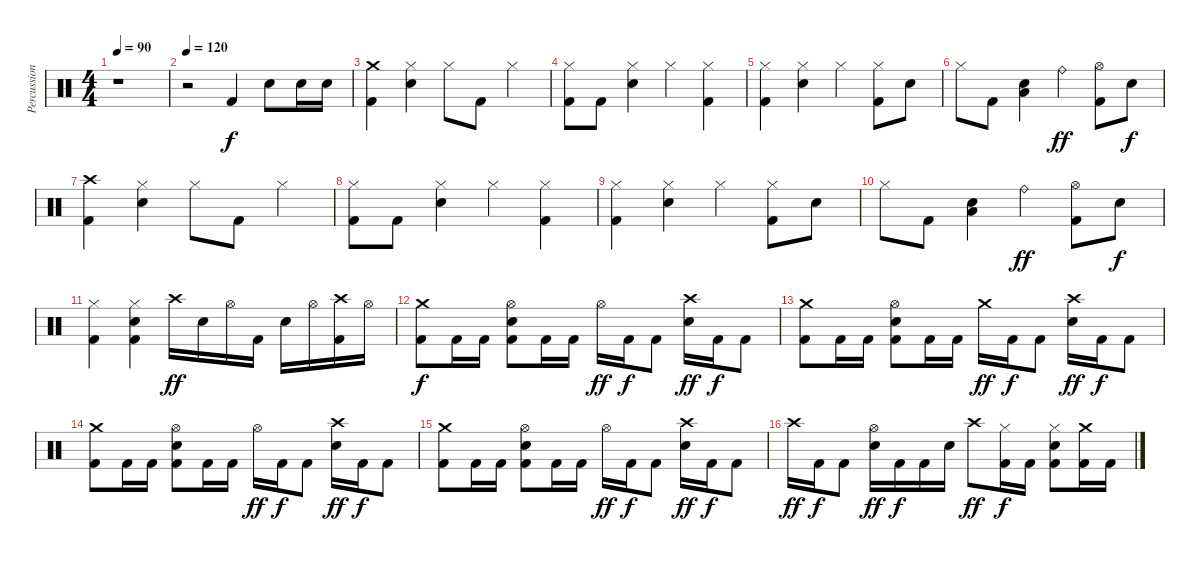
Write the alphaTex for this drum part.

\track ("Percussioni" "Percussion") {instrument percussion}
\staff {score}
\articulation defaults
\ts (4 4)
\tempo 90
\clef neutral
\ks c
r.1{dy f} |
\tempo 120
r.2 "Kick (hit) 2".4 "Electric Snare (hit)".8 "Electric Snare (hit)".16 "Electric Snare (hit)".16 |
("Crash medium (hit)" "Kick (hit) 2").4 ("Hi-Hat (closed)" "Electric Snare (hit)").4 "Hi-Hat (closed)".8 "Kick (hit) 2".8 "Hi-Hat (closed)".4 |
("Hi-Hat (closed)" "Kick (hit) 2").8 "Kick (hit) 2".8 ("Hi-Hat (closed)" "Electric Snare (hit)").4 "Hi-Hat (closed)".4 ("Hi-Hat (closed)" "Kick (hit) 2").4 |
("Hi-Hat (closed)" "Kick (hit) 2").4 ("Hi-Hat (closed)" "Electric Snare (hit)").4 "Hi-Hat (closed)".4 ("Hi-Hat (closed)" "Kick (hit) 2").8 "Electric Snare (hit)".8 |
"Hi-Hat (closed)".8 "Kick (hit) 2".8 ("Electric Snare (hit)" "Low Tom (hit)").4 "Ride (bell)".4{dy ff} ("Hi-Hat (open)" "Kick (hit) 2").8 "Electric Snare (hit)".8{dy f} |
("Crash high (hit)" "Kick (hit) 2").4 ("Hi-Hat (closed)" "Electric Snare (hit)").4 "Hi-Hat (closed)".8 "Kick (hit) 2".8 "Hi-Hat (closed)".4 |
("Hi-Hat (closed)" "Kick (hit) 2").8 "Kick (hit) 2".8 ("Hi-Hat (closed)" "Electric Snare (hit)").4 "Hi-Hat (closed)".4 ("Hi-Hat (closed)" "Kick (hit) 2").4 |
("Hi-Hat (closed)" "Kick (hit) 2").4 ("Hi-Hat (closed)" "Electric Snare (hit)").4 "Hi-Hat (closed)".4 ("Hi-Hat (closed)" "Kick (hit) 2").8 "Electric Snare (hit)".8 |
"Hi-Hat (closed)".8 "Kick (hit) 2".8 ("Electric Snare (hit)" "Low Tom (hit)").4 "Ride (bell)".4{dy ff} ("Hi-Hat (open)" "Kick (hit) 2").8 "Electric Snare (hit)".8{dy f} |
("Hi-Hat (closed)" "Kick (hit) 2").4 ("Hi-Hat (closed)" "Electric Snare (hit)" "Kick (hit) 2").4 "Crash high (hit)".16{dy ff} "Electric Snare (hit)".16 "Hi-Hat (open)".16 "Kick (hit) 2".16 "Electric Snare (hit)".16 "Hi-Hat (open)".16 ("Crash high (hit)" "Kick (hit) 2").16 "Hi-Hat (open)".16 |
("Crash medium (hit)" "Kick (hit) 2").8{dy f} "Kick (hit) 2".16 "Kick (hit) 2".16 ("Hi-Hat (open)" "Electric Snare (hit)" "Kick (hit) 2").8 "Kick (hit) 2".16 "Kick (hit) 2".16 "Hi-Hat (open)".16{dy ff} "Kick (hit) 2".16{dy f} "Kick (hit) 2".8 ("Crash high (hit)" "Electric Snare (hit)").16{dy ff} "Kick (hit) 2".16{dy f} "Kick (hit) 2".8 |
("Crash medium (hit)" "Kick (hit) 2").8 "Kick (hit) 2".16 "Kick (hit) 2".16 ("Hi-Hat (open)" "Electric Snare (hit)" "Kick (hit) 2").8 "Kick (hit) 2".16 "Kick (hit) 2".16 "Crash medium (hit)".16{dy ff} "Kick (hit) 2".16{dy f} "Kick (hit) 2".8 ("Crash high (hit)" "Electric Snare (hit)").16{dy ff} "Kick (hit) 2".16{dy f} "Kick (hit) 2".8 |
("Crash medium (hit)" "Kick (hit) 2").8 "Kick (hit) 2".16 "Kick (hit) 2".16 ("Hi-Hat (open)" "Electric Snare (hit)" "Kick (hit) 2").8 "Kick (hit) 2".16 "Kick (hit) 2".16 "Hi-Hat (open)".16{dy ff} "Kick (hit) 2".16{dy f} "Kick (hit) 2".8 ("Crash high (hit)" "Electric Snare (hit)").16{dy ff} "Kick (hit) 2".16{dy f} "Kick (hit) 2".8 |
("Crash medium (hit)" "Kick (hit) 2").8 "Kick (hit) 2".16 "Kick (hit) 2".16 ("Hi-Hat (open)" "Electric Snare (hit)" "Kick (hit) 2").8 "Kick (hit) 2".16 "Kick (hit) 2".16 "Hi-Hat (open)".16{dy ff} "Kick (hit) 2".16{dy f} "Kick (hit) 2".8 ("Crash high (hit)" "Electric Snare (hit)").16{dy ff} "Kick (hit) 2".16{dy f} "Kick (hit) 2".8 |
"Crash high (hit)".16{dy ff} "Kick (hit) 2".16{dy f} "Kick (hit) 2".8 ("Hi-Hat (open)" "Electric Snare (hit)").16{dy ff} "Kick (hit) 2".16{dy f} "Kick (hit) 2".16 "Electric Snare (hit)".16 "Crash high (hit)".8{dy ff} ("Hi-Hat (closed)" "Kick (hit) 2").16{dy f} "Kick (hit) 2".16 ("Hi-Hat (closed)" "Electric Snare (hit)" "Kick (hit) 2").8 ("Crash medium (hit)" "Kick (hit) 2").16 "Kick (hit) 2".16
